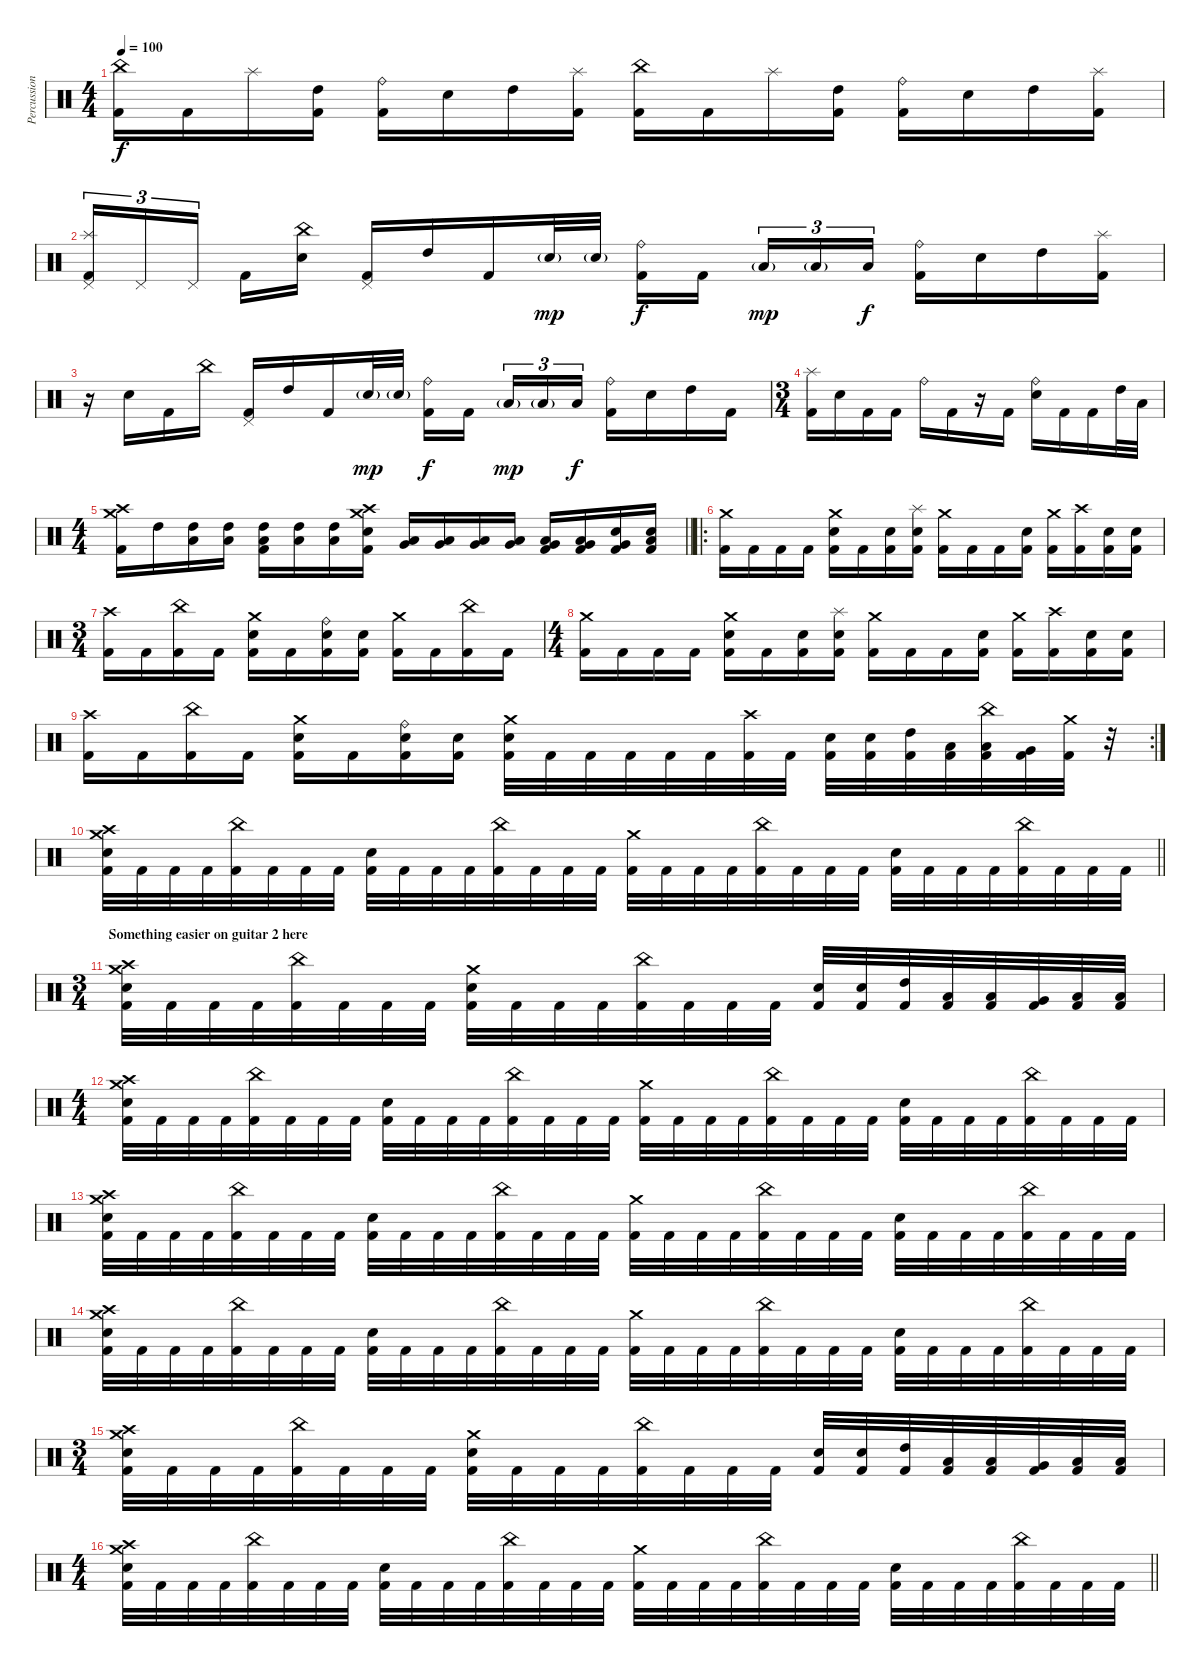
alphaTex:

\track ("Percussion" "Percussion") {mute instrument percussion}
\staff {score}
\articulation defaults
\ts (4 4)
\tempo 100
\clef neutral
\ks c
("China (hit)" "Kick (hit) 2").16{dy f} "Kick (hit) 2".16 "Splash (hit)".16 ("High Tom (hit)" "Kick (hit) 2").16 ("Ride (bell)" "Kick (hit) 2").16 "Electric Snare (hit)".16 "High Tom (hit)".16 ("Splash (hit)" "Kick (hit) 2").16 ("China (hit)" "Kick (hit) 2").16 "Kick (hit) 2".16 "Splash (hit)".16 ("High Tom (hit)" "Kick (hit) 2").16 ("Ride (bell)" "Kick (hit) 2").16 "Electric Snare (hit)".16 "High Tom (hit)".16 ("Splash (hit)" "Kick (hit) 2").16 |
("Pedal Hi-Hat (hit)" "Splash (hit)" "Kick (hit) 2").16{tu (3 2)} "Pedal Hi-Hat (hit)".16{tu (3 2)} "Pedal Hi-Hat (hit)".16{tu (3 2) beam splitsecondary} "Kick (hit) 2".16 ("China (hit)" "Electric Snare (hit)").16 ("Pedal Hi-Hat (hit)" "Kick (hit) 2").16 "High Tom (hit)".16 "Kick (hit) 2".16 "Electric Snare (hit)"{g}.32{dy mp} "Electric Snare (hit)"{g}.32 ("Ride (bell)" "Kick (hit) 2").16{dy f} "Kick (hit) 2".16{beam splitsecondary} "Low Tom (hit)"{g}.16{tu (3 2) dy mp} "Low Tom (hit)"{g}.16{tu (3 2)} "Low Tom (hit)".16{tu (3 2) dy f} ("Ride (bell)" "Kick (hit) 2").16 "Electric Snare (hit)".16 "High Tom (hit)".16 ("Splash (hit)" "Kick (hit) 2").16 |
r.16 "Electric Snare (hit)".16 "Kick (hit) 2".16 "China (hit)".16 ("Pedal Hi-Hat (hit)" "Kick (hit) 2").16 "High Tom (hit)".16 "Kick (hit) 2".16 "Electric Snare (hit)"{g}.32{dy mp} "Electric Snare (hit)"{g}.32 ("Ride (bell)" "Kick (hit) 2").16{dy f} "Kick (hit) 2".16{beam splitsecondary} "Low Tom (hit)"{g}.16{tu (3 2) dy mp} "Low Tom (hit)"{g}.16{tu (3 2)} "Low Tom (hit)".16{tu (3 2) dy f} ("Ride (bell)" "Kick (hit) 2").16 "Electric Snare (hit)".16 "High Tom (hit)".16 "Kick (hit) 2".16 |
\ts (3 4)
("Splash (hit)" "Kick (hit) 2").16 "Electric Snare (hit)".16 "Kick (hit) 2".16 "Kick (hit) 2".16 "Ride (bell)".16 "Kick (hit) 2".16 r.16 "Kick (hit) 2".16 ("Ride (bell)" "Electric Snare (hit)").16 "Kick (hit) 2".16 "Kick (hit) 2".16 "High Tom (hit)".32 "Low Tom (hit)".32 |
\ts (4 4)
\barLineRight lightlight
("Crash medium (hit)" "Crash high (hit)" "Kick (hit) 2").16 "High Tom (hit)".16 ("Low Tom (hit)" "High Tom (hit)").16 ("Low Tom (hit)" "High Tom (hit)").16 ("Low Tom (hit)" "High Tom (hit)" "Kick (hit) 2").16 ("Low Tom (hit)" "High Tom (hit)").16 ("Low Tom (hit)" "High Tom (hit)").16 ("Crash medium (hit)" "Crash high (hit)" "Electric Snare (hit)" "Kick (hit) 2").16 ("Low Floor Tom (hit)" "Very Low Tom (hit)").16 ("Low Floor Tom (hit)" "Very Low Tom (hit)").16 ("Low Floor Tom (hit)" "Very Low Tom (hit)").16 ("Low Floor Tom (hit)" "Very Low Tom (hit)").16 ("Low Floor Tom (hit)" "Very Low Tom (hit)" "Kick (hit) 2").16 ("Low Floor Tom (hit)" "Very Low Tom (hit)" "Kick (hit) 2").16 ("Electric Snare (hit)" "Very Low Tom (hit)" "Kick (hit) 2").16 ("Electric Snare (hit)" "Low Floor Tom (hit)" "Kick (hit) 2").16 |
\ro
("Crash medium (hit)" "Kick (hit) 2").16 "Kick (hit) 2".16 "Kick (hit) 2".16 "Kick (hit) 2".16 ("Crash medium (hit)" "Electric Snare (hit)" "Kick (hit) 2").16 "Kick (hit) 2".16 ("Electric Snare (hit)" "Kick (hit) 2").16 ("Splash (hit)" "Electric Snare (hit)" "Kick (hit) 2").16 ("Crash medium (hit)" "Kick (hit) 2").16 "Kick (hit) 2".16 "Kick (hit) 2".16 ("Electric Snare (hit)" "Kick (hit) 2").16 ("Crash medium (hit)" "Kick (hit) 2").16 ("Crash high (hit)" "Kick (hit) 2").16 ("Electric Snare (hit)" "Kick (hit) 2").16 ("Electric Snare (hit)" "Kick (hit) 2").16 |
\ts (3 4)
("Crash high (hit)" "Kick (hit) 2").16 "Kick (hit) 2".16 ("China (hit)" "Kick (hit) 2").16 "Kick (hit) 2".16 ("Crash medium (hit)" "Electric Snare (hit)" "Kick (hit) 2").16 "Kick (hit) 2".16 ("Ride (bell)" "Electric Snare (hit)" "Kick (hit) 2").16 ("Electric Snare (hit)" "Kick (hit) 2").16 ("Crash medium (hit)" "Kick (hit) 2").16 "Kick (hit) 2".16 ("China (hit)" "Kick (hit) 2").16 "Kick (hit) 2".16 |
\ts (4 4)
("Crash medium (hit)" "Kick (hit) 2").16 "Kick (hit) 2".16 "Kick (hit) 2".16 "Kick (hit) 2".16 ("Crash medium (hit)" "Electric Snare (hit)" "Kick (hit) 2").16 "Kick (hit) 2".16 ("Electric Snare (hit)" "Kick (hit) 2").16 ("Splash (hit)" "Electric Snare (hit)" "Kick (hit) 2").16 ("Crash medium (hit)" "Kick (hit) 2").16 "Kick (hit) 2".16 "Kick (hit) 2".16 ("Electric Snare (hit)" "Kick (hit) 2").16 ("Crash medium (hit)" "Kick (hit) 2").16 ("Crash high (hit)" "Kick (hit) 2").16 ("Electric Snare (hit)" "Kick (hit) 2").16 ("Electric Snare (hit)" "Kick (hit) 2").16 |
\rc 2
("Crash high (hit)" "Kick (hit) 2").16 "Kick (hit) 2".16 ("China (hit)" "Kick (hit) 2").16 "Kick (hit) 2".16 ("Crash medium (hit)" "Electric Snare (hit)" "Kick (hit) 2").16 "Kick (hit) 2".16 ("Ride (bell)" "Electric Snare (hit)" "Kick (hit) 2").16 ("Electric Snare (hit)" "Kick (hit) 2").16 ("Crash medium (hit)" "Electric Snare (hit)" "Kick (hit) 2").32 "Kick (hit) 2".32 "Kick (hit) 2".32 "Kick (hit) 2".32 "Kick (hit) 2".32 "Kick (hit) 2".32 ("Crash high (hit)" "Kick (hit) 2").32 "Kick (hit) 2".32 ("Electric Snare (hit)" "Kick (hit) 2").32 ("Electric Snare (hit)" "Kick (hit) 2").32 ("High Tom (hit)" "Kick (hit) 2").32 ("Low Tom (hit)" "Kick (hit) 2").32 ("China (hit)" "Low Tom (hit)" "Kick (hit) 2").32 ("Very Low Tom (hit)" "Kick (hit) 2").32 ("Crash medium (hit)" "Kick (hit) 2").32 r.32 |
\barLineRight lightlight
("Crash high (hit)" "Crash medium (hit)" "Electric Snare (hit)" "Kick (hit) 2").32 "Kick (hit) 2".32 "Kick (hit) 2".32 "Kick (hit) 2".32 ("China (hit)" "Kick (hit) 2").32 "Kick (hit) 2".32 "Kick (hit) 2".32 "Kick (hit) 2".32 ("Electric Snare (hit)" "Kick (hit) 2").32 "Kick (hit) 2".32 "Kick (hit) 2".32 "Kick (hit) 2".32 ("China (hit)" "Kick (hit) 2").32 "Kick (hit) 2".32 "Kick (hit) 2".32 "Kick (hit) 2".32 ("Crash medium (hit)" "Kick (hit) 2").32 "Kick (hit) 2".32 "Kick (hit) 2".32 "Kick (hit) 2".32 ("China (hit)" "Kick (hit) 2").32 "Kick (hit) 2".32 "Kick (hit) 2".32 "Kick (hit) 2".32 ("Electric Snare (hit)" "Kick (hit) 2").32 "Kick (hit) 2".32 "Kick (hit) 2".32 "Kick (hit) 2".32 ("China (hit)" "Kick (hit) 2").32 "Kick (hit) 2".32 "Kick (hit) 2".32 "Kick (hit) 2".32 |
\ts (3 4)
\section ("" "Something easier on guitar 2 here")
("Crash high (hit)" "Crash medium (hit)" "Electric Snare (hit)" "Kick (hit) 2").32 "Kick (hit) 2".32 "Kick (hit) 2".32 "Kick (hit) 2".32 ("China (hit)" "Kick (hit) 2").32 "Kick (hit) 2".32 "Kick (hit) 2".32 "Kick (hit) 2".32 ("Crash medium (hit)" "Electric Snare (hit)" "Kick (hit) 2").32 "Kick (hit) 2".32 "Kick (hit) 2".32 "Kick (hit) 2".32 ("China (hit)" "Kick (hit) 2").32 "Kick (hit) 2".32 "Kick (hit) 2".32 "Kick (hit) 2".32 ("Electric Snare (hit)" "Kick (hit) 2").32 ("Electric Snare (hit)" "Kick (hit) 2").32 ("High Tom (hit)" "Kick (hit) 2").32 ("Low Tom (hit)" "Kick (hit) 2").32 ("Low Tom (hit)" "Kick (hit) 2").32 ("Very Low Tom (hit)" "Kick (hit) 2").32 ("Low Floor Tom (hit)" "Kick (hit) 2").32 ("Low Floor Tom (hit)" "Kick (hit) 2").32 |
\ts (4 4)
("Crash high (hit)" "Crash medium (hit)" "Electric Snare (hit)" "Kick (hit) 2").32 "Kick (hit) 2".32 "Kick (hit) 2".32 "Kick (hit) 2".32 ("China (hit)" "Kick (hit) 2").32 "Kick (hit) 2".32 "Kick (hit) 2".32 "Kick (hit) 2".32 ("Electric Snare (hit)" "Kick (hit) 2").32 "Kick (hit) 2".32 "Kick (hit) 2".32 "Kick (hit) 2".32 ("China (hit)" "Kick (hit) 2").32 "Kick (hit) 2".32 "Kick (hit) 2".32 "Kick (hit) 2".32 ("Crash medium (hit)" "Kick (hit) 2").32 "Kick (hit) 2".32 "Kick (hit) 2".32 "Kick (hit) 2".32 ("China (hit)" "Kick (hit) 2").32 "Kick (hit) 2".32 "Kick (hit) 2".32 "Kick (hit) 2".32 ("Electric Snare (hit)" "Kick (hit) 2").32 "Kick (hit) 2".32 "Kick (hit) 2".32 "Kick (hit) 2".32 ("China (hit)" "Kick (hit) 2").32 "Kick (hit) 2".32 "Kick (hit) 2".32 "Kick (hit) 2".32 |
("Crash high (hit)" "Crash medium (hit)" "Electric Snare (hit)" "Kick (hit) 2").32 "Kick (hit) 2".32 "Kick (hit) 2".32 "Kick (hit) 2".32 ("China (hit)" "Kick (hit) 2").32 "Kick (hit) 2".32 "Kick (hit) 2".32 "Kick (hit) 2".32 ("Electric Snare (hit)" "Kick (hit) 2").32 "Kick (hit) 2".32 "Kick (hit) 2".32 "Kick (hit) 2".32 ("China (hit)" "Kick (hit) 2").32 "Kick (hit) 2".32 "Kick (hit) 2".32 "Kick (hit) 2".32 ("Crash medium (hit)" "Kick (hit) 2").32 "Kick (hit) 2".32 "Kick (hit) 2".32 "Kick (hit) 2".32 ("China (hit)" "Kick (hit) 2").32 "Kick (hit) 2".32 "Kick (hit) 2".32 "Kick (hit) 2".32 ("Electric Snare (hit)" "Kick (hit) 2").32 "Kick (hit) 2".32 "Kick (hit) 2".32 "Kick (hit) 2".32 ("China (hit)" "Kick (hit) 2").32 "Kick (hit) 2".32 "Kick (hit) 2".32 "Kick (hit) 2".32 |
("Crash high (hit)" "Crash medium (hit)" "Electric Snare (hit)" "Kick (hit) 2").32 "Kick (hit) 2".32 "Kick (hit) 2".32 "Kick (hit) 2".32 ("China (hit)" "Kick (hit) 2").32 "Kick (hit) 2".32 "Kick (hit) 2".32 "Kick (hit) 2".32 ("Electric Snare (hit)" "Kick (hit) 2").32 "Kick (hit) 2".32 "Kick (hit) 2".32 "Kick (hit) 2".32 ("China (hit)" "Kick (hit) 2").32 "Kick (hit) 2".32 "Kick (hit) 2".32 "Kick (hit) 2".32 ("Crash medium (hit)" "Kick (hit) 2").32 "Kick (hit) 2".32 "Kick (hit) 2".32 "Kick (hit) 2".32 ("China (hit)" "Kick (hit) 2").32 "Kick (hit) 2".32 "Kick (hit) 2".32 "Kick (hit) 2".32 ("Electric Snare (hit)" "Kick (hit) 2").32 "Kick (hit) 2".32 "Kick (hit) 2".32 "Kick (hit) 2".32 ("China (hit)" "Kick (hit) 2").32 "Kick (hit) 2".32 "Kick (hit) 2".32 "Kick (hit) 2".32 |
\ts (3 4)
("Crash high (hit)" "Crash medium (hit)" "Electric Snare (hit)" "Kick (hit) 2").32 "Kick (hit) 2".32 "Kick (hit) 2".32 "Kick (hit) 2".32 ("China (hit)" "Kick (hit) 2").32 "Kick (hit) 2".32 "Kick (hit) 2".32 "Kick (hit) 2".32 ("Crash medium (hit)" "Electric Snare (hit)" "Kick (hit) 2").32 "Kick (hit) 2".32 "Kick (hit) 2".32 "Kick (hit) 2".32 ("China (hit)" "Kick (hit) 2").32 "Kick (hit) 2".32 "Kick (hit) 2".32 "Kick (hit) 2".32 ("Electric Snare (hit)" "Kick (hit) 2").32 ("Electric Snare (hit)" "Kick (hit) 2").32 ("High Tom (hit)" "Kick (hit) 2").32 ("Low Tom (hit)" "Kick (hit) 2").32 ("Low Tom (hit)" "Kick (hit) 2").32 ("Very Low Tom (hit)" "Kick (hit) 2").32 ("Low Floor Tom (hit)" "Kick (hit) 2").32 ("Low Floor Tom (hit)" "Kick (hit) 2").32 |
\ts (4 4)
\barLineRight lightlight
("Crash high (hit)" "Crash medium (hit)" "Electric Snare (hit)" "Kick (hit) 2").32 "Kick (hit) 2".32 "Kick (hit) 2".32 "Kick (hit) 2".32 ("China (hit)" "Kick (hit) 2").32 "Kick (hit) 2".32 "Kick (hit) 2".32 "Kick (hit) 2".32 ("Electric Snare (hit)" "Kick (hit) 2").32 "Kick (hit) 2".32 "Kick (hit) 2".32 "Kick (hit) 2".32 ("China (hit)" "Kick (hit) 2").32 "Kick (hit) 2".32 "Kick (hit) 2".32 "Kick (hit) 2".32 ("Crash medium (hit)" "Kick (hit) 2").32 "Kick (hit) 2".32 "Kick (hit) 2".32 "Kick (hit) 2".32 ("China (hit)" "Kick (hit) 2").32 "Kick (hit) 2".32 "Kick (hit) 2".32 "Kick (hit) 2".32 ("Electric Snare (hit)" "Kick (hit) 2").32 "Kick (hit) 2".32 "Kick (hit) 2".32 "Kick (hit) 2".32 ("China (hit)" "Kick (hit) 2").32 "Kick (hit) 2".32 "Kick (hit) 2".32 "Kick (hit) 2".32
